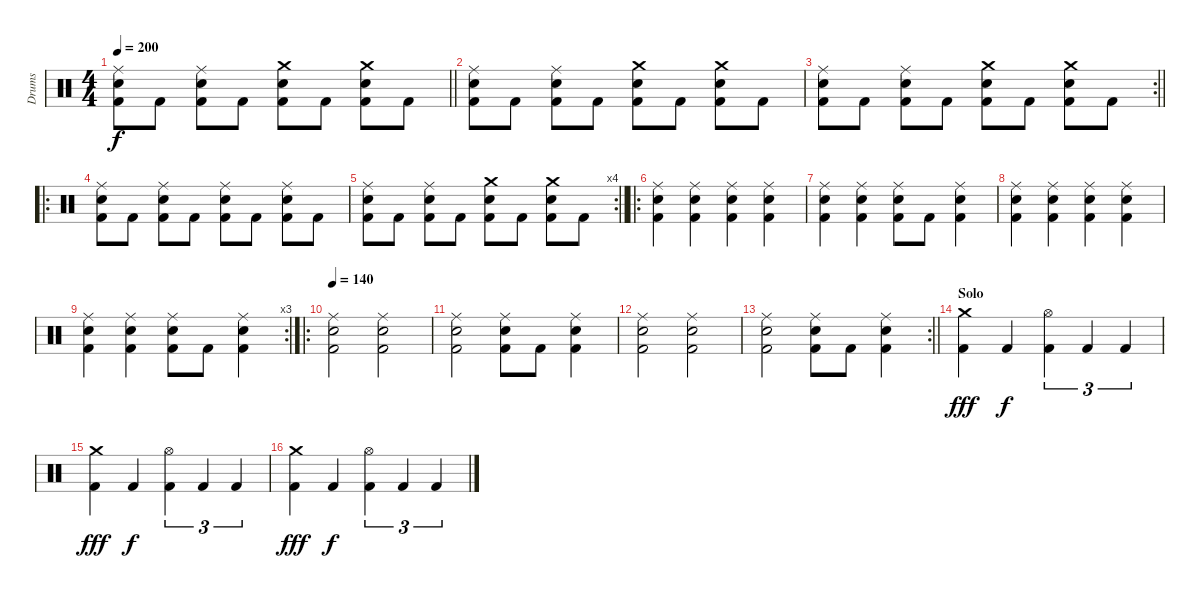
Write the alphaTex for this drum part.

\track ("Drums" "Drums") {instrument percussion}
\staff {score}
\articulation defaults
\ts (4 4)
\tempo 200
\clef neutral
\barLineRight lightlight
\ks c
("Ride (middle)" "Snare (hit) 2" "Kick (hit) 2").8{dy f} "Kick (hit) 2".8 ("Ride (middle)" "Snare (hit) 2" "Kick (hit) 2").8 "Kick (hit) 2".8 ("Crash medium (hit)" "Snare (hit) 2" "Kick (hit) 2").8 "Kick (hit) 2".8 ("Crash medium (hit)" "Snare (hit) 2" "Kick (hit) 2").8 "Kick (hit) 2".8 |
("Ride (middle)" "Snare (hit) 2" "Kick (hit) 2").8 "Kick (hit) 2".8 ("Ride (middle)" "Snare (hit) 2" "Kick (hit) 2").8 "Kick (hit) 2".8 ("Crash medium (hit)" "Snare (hit) 2" "Kick (hit) 2").8 "Kick (hit) 2".8 ("Crash medium (hit)" "Snare (hit) 2" "Kick (hit) 2").8 "Kick (hit) 2".8 |
\rc 2
\barLineRight lightlight
("Ride (middle)" "Snare (hit) 2" "Kick (hit) 2").8 "Kick (hit) 2".8 ("Ride (middle)" "Snare (hit) 2" "Kick (hit) 2").8 "Kick (hit) 2".8 ("Crash medium (hit)" "Snare (hit) 2" "Kick (hit) 2").8 "Kick (hit) 2".8 ("Crash medium (hit)" "Snare (hit) 2" "Kick (hit) 2").8 "Kick (hit) 2".8 |
\ro
("Ride (middle)" "Snare (hit) 2" "Kick (hit) 2").8 "Kick (hit) 2".8 ("Ride (middle)" "Snare (hit) 2" "Kick (hit) 2").8 "Kick (hit) 2".8 ("Ride (middle)" "Snare (hit) 2" "Kick (hit) 2").8 "Kick (hit) 2".8 ("Ride (middle)" "Snare (hit) 2" "Kick (hit) 2").8 "Kick (hit) 2".8 |
\rc 4
\barLineRight lightlight
("Ride (middle)" "Snare (hit) 2" "Kick (hit) 2").8 "Kick (hit) 2".8 ("Ride (middle)" "Snare (hit) 2" "Kick (hit) 2").8 "Kick (hit) 2".8 ("Crash medium (hit)" "Snare (hit) 2" "Kick (hit) 2").8 "Kick (hit) 2".8 ("Crash medium (hit)" "Snare (hit) 2" "Kick (hit) 2").8 "Kick (hit) 2".8 |
\ro
("Ride (middle)" "Snare (hit) 2" "Kick (hit) 2").4 ("Ride (middle)" "Snare (hit) 2" "Kick (hit) 2").4 ("Ride (middle)" "Snare (hit) 2" "Kick (hit) 2").4 ("Ride (middle)" "Snare (hit) 2" "Kick (hit) 2").4 |
("Ride (middle)" "Snare (hit) 2" "Kick (hit) 2").4 ("Ride (middle)" "Snare (hit) 2" "Kick (hit) 2").4 ("Ride (middle)" "Snare (hit) 2" "Kick (hit) 2").8 "Kick (hit) 2".8 ("Ride (middle)" "Snare (hit) 2" "Kick (hit) 2").4 |
("Ride (middle)" "Snare (hit) 2" "Kick (hit) 2").4 ("Ride (middle)" "Snare (hit) 2" "Kick (hit) 2").4 ("Ride (middle)" "Snare (hit) 2" "Kick (hit) 2").4 ("Ride (middle)" "Snare (hit) 2" "Kick (hit) 2").4 |
\rc 3
("Ride (middle)" "Snare (hit) 2" "Kick (hit) 2").4 ("Ride (middle)" "Snare (hit) 2" "Kick (hit) 2").4 ("Ride (middle)" "Snare (hit) 2" "Kick (hit) 2").8 "Kick (hit) 2".8 ("Ride (middle)" "Snare (hit) 2" "Kick (hit) 2").4 |
\ro
\tempo 140
("Ride (middle)" "Snare (hit) 2" "Kick (hit) 2").2 ("Ride (middle)" "Snare (hit) 2" "Kick (hit) 2").2 |
("Ride (middle)" "Snare (hit) 2" "Kick (hit) 2").2 ("Ride (middle)" "Snare (hit) 2" "Kick (hit) 2").8 "Kick (hit) 2".8 ("Ride (middle)" "Snare (hit) 2" "Kick (hit) 2").4 |
("Ride (middle)" "Snare (hit) 2" "Kick (hit) 2").2 ("Ride (middle)" "Snare (hit) 2" "Kick (hit) 2").2 |
\rc 2
\barLineRight lightlight
("Ride (middle)" "Snare (hit) 2" "Kick (hit) 2").2 ("Ride (middle)" "Snare (hit) 2" "Kick (hit) 2").8 "Kick (hit) 2".8 ("Ride (middle)" "Snare (hit) 2" "Kick (hit) 2").4 |
\section ("" "Solo")
("Crash medium (hit)" "Kick (hit) 2").4{dy fff} "Kick (hit) 2".4{dy f} ("Hi-Hat (open)" "Kick (hit) 2").4{tu (3 2)} "Kick (hit) 2".4{tu (3 2)} "Kick (hit) 2".4{tu (3 2)} |
("Crash medium (hit)" "Kick (hit) 2").4{dy fff} "Kick (hit) 2".4{dy f} ("Hi-Hat (open)" "Kick (hit) 2").4{tu (3 2)} "Kick (hit) 2".4{tu (3 2)} "Kick (hit) 2".4{tu (3 2)} |
("Crash medium (hit)" "Kick (hit) 2").4{dy fff} "Kick (hit) 2".4{dy f} ("Hi-Hat (open)" "Kick (hit) 2").4{tu (3 2)} "Kick (hit) 2".4{tu (3 2)} "Kick (hit) 2".4{tu (3 2)}
